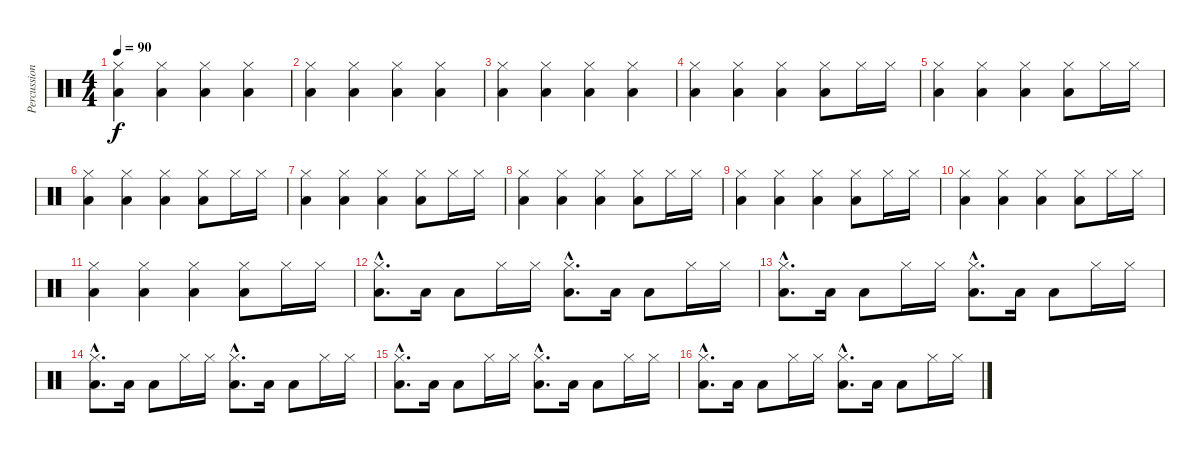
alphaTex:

\track ("Percussions" "Percussion") {instrument percussion}
\staff {score}
\articulation defaults
\ts (4 4)
\tempo 90
\clef neutral
\ks c
("Hi-Hat (closed)" "Low Floor Tom (hit)").4{dy f} ("Hi-Hat (closed)" "Low Floor Tom (hit)").4 ("Hi-Hat (closed)" "Low Floor Tom (hit)").4 ("Hi-Hat (closed)" "Low Floor Tom (hit)").4 |
("Hi-Hat (closed)" "Low Floor Tom (hit)").4 ("Hi-Hat (closed)" "Low Floor Tom (hit)").4 ("Hi-Hat (closed)" "Low Floor Tom (hit)").4 ("Hi-Hat (closed)" "Low Floor Tom (hit)").4 |
("Hi-Hat (closed)" "Low Floor Tom (hit)").4 ("Hi-Hat (closed)" "Low Floor Tom (hit)").4 ("Hi-Hat (closed)" "Low Floor Tom (hit)").4 ("Hi-Hat (closed)" "Low Floor Tom (hit)").4 |
("Hi-Hat (closed)" "Low Floor Tom (hit)").4 ("Hi-Hat (closed)" "Low Floor Tom (hit)").4 ("Hi-Hat (closed)" "Low Floor Tom (hit)").4 ("Hi-Hat (closed)" "Low Floor Tom (hit)").8 "Hi-Hat (closed)".16 "Hi-Hat (closed)".16 |
("Hi-Hat (closed)" "Low Floor Tom (hit)").4 ("Hi-Hat (closed)" "Low Floor Tom (hit)").4 ("Hi-Hat (closed)" "Low Floor Tom (hit)").4 ("Hi-Hat (closed)" "Low Floor Tom (hit)").8 "Hi-Hat (closed)".16 "Hi-Hat (closed)".16 |
("Hi-Hat (closed)" "Low Floor Tom (hit)").4 ("Hi-Hat (closed)" "Low Floor Tom (hit)").4 ("Hi-Hat (closed)" "Low Floor Tom (hit)").4 ("Hi-Hat (closed)" "Low Floor Tom (hit)").8 "Hi-Hat (closed)".16 "Hi-Hat (closed)".16 |
("Hi-Hat (closed)" "Low Floor Tom (hit)").4 ("Hi-Hat (closed)" "Low Floor Tom (hit)").4 ("Hi-Hat (closed)" "Low Floor Tom (hit)").4 ("Hi-Hat (closed)" "Low Floor Tom (hit)").8 "Hi-Hat (closed)".16 "Hi-Hat (closed)".16 |
("Hi-Hat (closed)" "Low Floor Tom (hit)").4 ("Hi-Hat (closed)" "Low Floor Tom (hit)").4 ("Hi-Hat (closed)" "Low Floor Tom (hit)").4 ("Hi-Hat (closed)" "Low Floor Tom (hit)").8 "Hi-Hat (closed)".16 "Hi-Hat (closed)".16 |
("Hi-Hat (closed)" "Low Floor Tom (hit)").4 ("Hi-Hat (closed)" "Low Floor Tom (hit)").4 ("Hi-Hat (closed)" "Low Floor Tom (hit)").4 ("Hi-Hat (closed)" "Low Floor Tom (hit)").8 "Hi-Hat (closed)".16 "Hi-Hat (closed)".16 |
("Hi-Hat (closed)" "Low Floor Tom (hit)").4 ("Hi-Hat (closed)" "Low Floor Tom (hit)").4 ("Hi-Hat (closed)" "Low Floor Tom (hit)").4 ("Hi-Hat (closed)" "Low Floor Tom (hit)").8 "Hi-Hat (closed)".16 "Hi-Hat (closed)".16 |
("Hi-Hat (closed)" "Low Floor Tom (hit)").4 ("Hi-Hat (closed)" "Low Floor Tom (hit)").4 ("Hi-Hat (closed)" "Low Floor Tom (hit)").4 ("Hi-Hat (closed)" "Low Floor Tom (hit)").8 "Hi-Hat (closed)".16 "Hi-Hat (closed)".16 |
("Hi-Hat (closed)"{hac} "Low Floor Tom (hit)"{hac}).8{d} "Low Floor Tom (hit)".16 "Low Floor Tom (hit)".8 "Hi-Hat (closed)".16 "Hi-Hat (closed)".16 ("Hi-Hat (closed)"{hac} "Low Floor Tom (hit)"{hac}).8{d} "Low Floor Tom (hit)".16 "Low Floor Tom (hit)".8 "Hi-Hat (closed)".16 "Hi-Hat (closed)".16 |
("Hi-Hat (closed)"{hac} "Low Floor Tom (hit)"{hac}).8{d} "Low Floor Tom (hit)".16 "Low Floor Tom (hit)".8 "Hi-Hat (closed)".16 "Hi-Hat (closed)".16 ("Hi-Hat (closed)"{hac} "Low Floor Tom (hit)"{hac}).8{d} "Low Floor Tom (hit)".16 "Low Floor Tom (hit)".8 "Hi-Hat (closed)".16 "Hi-Hat (closed)".16 |
("Hi-Hat (closed)"{hac} "Low Floor Tom (hit)"{hac}).8{d} "Low Floor Tom (hit)".16 "Low Floor Tom (hit)".8 "Hi-Hat (closed)".16 "Hi-Hat (closed)".16 ("Hi-Hat (closed)"{hac} "Low Floor Tom (hit)"{hac}).8{d} "Low Floor Tom (hit)".16 "Low Floor Tom (hit)".8 "Hi-Hat (closed)".16 "Hi-Hat (closed)".16 |
("Hi-Hat (closed)"{hac} "Low Floor Tom (hit)"{hac}).8{d} "Low Floor Tom (hit)".16 "Low Floor Tom (hit)".8 "Hi-Hat (closed)".16 "Hi-Hat (closed)".16 ("Hi-Hat (closed)"{hac} "Low Floor Tom (hit)"{hac}).8{d} "Low Floor Tom (hit)".16 "Low Floor Tom (hit)".8 "Hi-Hat (closed)".16 "Hi-Hat (closed)".16 |
("Hi-Hat (closed)"{hac} "Low Floor Tom (hit)"{hac}).8{d} "Low Floor Tom (hit)".16 "Low Floor Tom (hit)".8 "Hi-Hat (closed)".16 "Hi-Hat (closed)".16 ("Hi-Hat (closed)"{hac} "Low Floor Tom (hit)"{hac}).8{d} "Low Floor Tom (hit)".16 "Low Floor Tom (hit)".8 "Hi-Hat (closed)".16 "Hi-Hat (closed)".16
